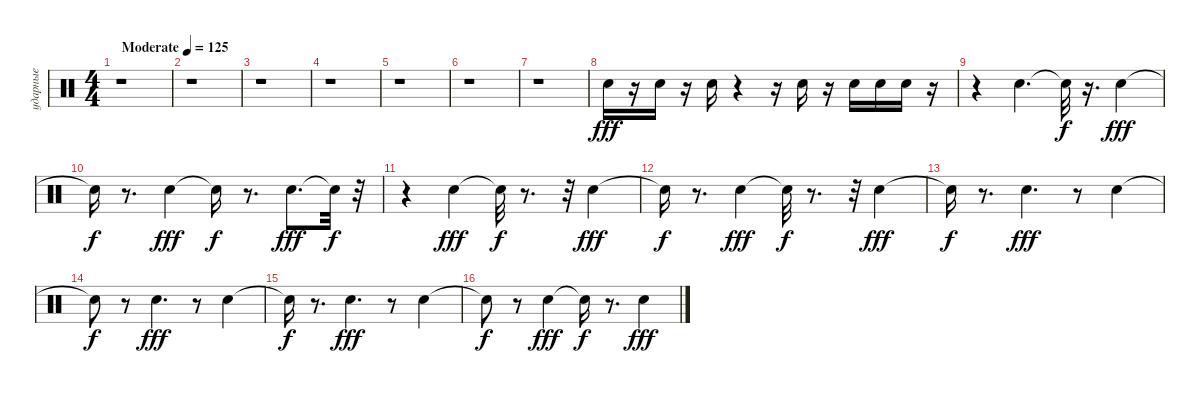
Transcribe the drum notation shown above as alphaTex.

\track ("ударные" "ударные") {instrument percussion}
\staff {score}
\articulation defaults
\ts (4 4)
\tempo (125 "Moderate")
\clef neutral
\ks c
r.1{dy fff} |
r.1 |
r.1 |
r.1 |
r.1 |
r.1 |
r.1 |
"Snare (hit) 2".16 r.16 "Snare (hit) 2".16 r.16 "Snare (hit) 2".16 r.4 r.16 "Snare (hit) 2".16 r.16 "Snare (hit) 2".16 "Snare (hit) 2".16 "Snare (hit) 2".16 r.16 |
r.4 "Snare (hit) 2".4{d} "Snare (hit)"{t}.32{dy f} r.16{d} "Snare (hit) 2".4{dy fff} |
"Snare (hit)"{t}.16{dy f} r.8{d} "Snare (hit) 2".4{dy fff} "Snare (hit)"{t}.16{dy f} r.8{d} "Snare (hit) 2".8{d dy fff} "Snare (hit)"{t}.32{dy f} r.32 |
r.4 "Snare (hit) 2".4{dy fff} "Snare (hit)"{t}.32{dy f} r.8{d} r.32 "Snare (hit) 2".4{dy fff} |
"Snare (hit)"{t}.16{dy f} r.8{d} "Snare (hit) 2".4{dy fff} "Snare (hit)"{t}.32{dy f} r.8{d} r.32 "Snare (hit) 2".4{dy fff} |
"Snare (hit)"{t}.16{dy f} r.8{d} "Snare (hit) 2".4{d dy fff} r.8 "Snare (hit) 2".4 |
"Snare (hit)"{t}.8{dy f} r.8 "Snare (hit) 2".4{d dy fff} r.8 "Snare (hit) 2".4 |
"Snare (hit)"{t}.16{dy f} r.8{d} "Snare (hit) 2".4{d dy fff} r.8 "Snare (hit) 2".4 |
"Snare (hit)"{t}.8{dy f} r.8 "Snare (hit) 2".4{dy fff} "Snare (hit)"{t}.16{dy f} r.8{d} "Snare (hit) 2".4{dy fff}
